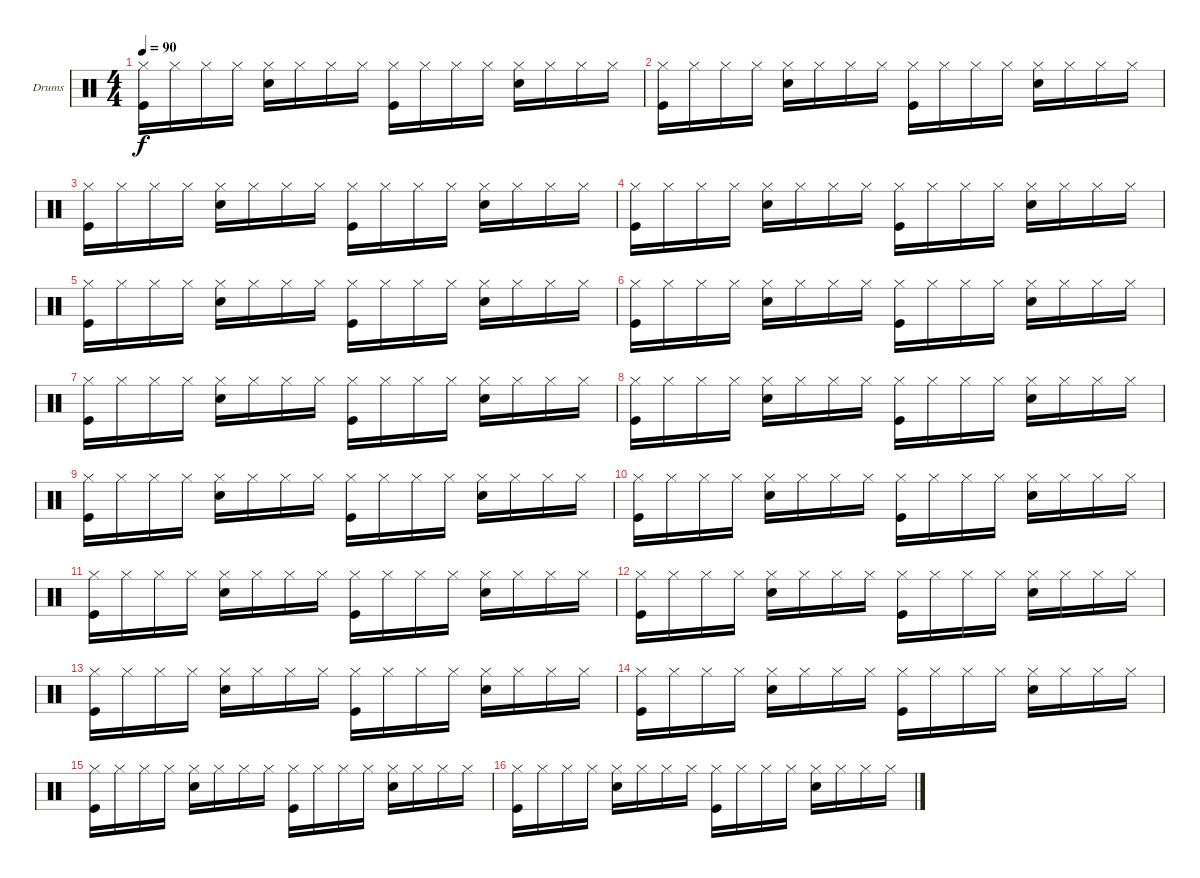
\defaultSystemsLayout 4
\bracketExtendMode groupsimilarinstruments
\firstSystemTrackNameOrientation horizontal
\otherSystemsTrackNameOrientation horizontal
\track ("Drumkit" "Drums") {instrument percussion}
\staff {score}
\articulation defaults
\ts (4 4)
\tempo 90
\clef neutral
\ks c
("Kick (hit)" "Hi-Hat (closed)").16{dy f} "Hi-Hat (closed)".16 "Hi-Hat (closed)".16 "Hi-Hat (closed)".16 ("Hi-Hat (closed)" "Snare (hit) 2").16 "Hi-Hat (closed)".16 "Hi-Hat (closed)".16 "Hi-Hat (closed)".16 ("Hi-Hat (closed)" "Kick (hit)").16 "Hi-Hat (closed)".16 "Hi-Hat (closed)".16 "Hi-Hat (closed)".16 ("Snare (hit) 2" "Hi-Hat (closed)").16 "Hi-Hat (closed)".16 "Hi-Hat (closed)".16 "Hi-Hat (closed)".16 |
("Kick (hit)" "Hi-Hat (closed)").16 "Hi-Hat (closed)".16 "Hi-Hat (closed)".16 "Hi-Hat (closed)".16 ("Hi-Hat (closed)" "Snare (hit) 2").16 "Hi-Hat (closed)".16 "Hi-Hat (closed)".16 "Hi-Hat (closed)".16 ("Kick (hit)" "Hi-Hat (closed)").16 "Hi-Hat (closed)".16 "Hi-Hat (closed)".16 "Hi-Hat (closed)".16 ("Snare (hit) 2" "Hi-Hat (closed)").16 "Hi-Hat (closed)".16 "Hi-Hat (closed)".16 "Hi-Hat (closed)".16 |
("Hi-Hat (closed)" "Kick (hit)").16 "Hi-Hat (closed)".16 "Hi-Hat (closed)".16 "Hi-Hat (closed)".16 ("Snare (hit) 2" "Hi-Hat (closed)").16 "Hi-Hat (closed)".16 "Hi-Hat (closed)".16 "Hi-Hat (closed)".16 ("Kick (hit)" "Hi-Hat (closed)").16 "Hi-Hat (closed)".16 "Hi-Hat (closed)".16 "Hi-Hat (closed)".16 ("Hi-Hat (closed)" "Snare (hit) 2").16 "Hi-Hat (closed)".16 "Hi-Hat (closed)".16 "Hi-Hat (closed)".16 |
("Kick (hit)" "Hi-Hat (closed)").16 "Hi-Hat (closed)".16 "Hi-Hat (closed)".16 "Hi-Hat (closed)".16 ("Snare (hit) 2" "Hi-Hat (closed)").16 "Hi-Hat (closed)".16 "Hi-Hat (closed)".16 "Hi-Hat (closed)".16 ("Hi-Hat (closed)" "Kick (hit)").16 "Hi-Hat (closed)".16 "Hi-Hat (closed)".16 "Hi-Hat (closed)".16 ("Snare (hit) 2" "Hi-Hat (closed)").16 "Hi-Hat (closed)".16 "Hi-Hat (closed)".16 "Hi-Hat (closed)".16 |
("Kick (hit)" "Hi-Hat (closed)").16 "Hi-Hat (closed)".16 "Hi-Hat (closed)".16 "Hi-Hat (closed)".16 ("Hi-Hat (closed)" "Snare (hit) 2").16 "Hi-Hat (closed)".16 "Hi-Hat (closed)".16 "Hi-Hat (closed)".16 ("Kick (hit)" "Hi-Hat (closed)").16 "Hi-Hat (closed)".16 "Hi-Hat (closed)".16 "Hi-Hat (closed)".16 ("Snare (hit) 2" "Hi-Hat (closed)").16 "Hi-Hat (closed)".16 "Hi-Hat (closed)".16 "Hi-Hat (closed)".16 |
("Kick (hit)" "Hi-Hat (closed)").16 "Hi-Hat (closed)".16 "Hi-Hat (closed)".16 "Hi-Hat (closed)".16 ("Snare (hit) 2" "Hi-Hat (closed)").16 "Hi-Hat (closed)".16 "Hi-Hat (closed)".16 "Hi-Hat (closed)".16 ("Hi-Hat (closed)" "Kick (hit)").16 "Hi-Hat (closed)".16 "Hi-Hat (closed)".16 "Hi-Hat (closed)".16 ("Snare (hit) 2" "Hi-Hat (closed)").16 "Hi-Hat (closed)".16 "Hi-Hat (closed)".16 "Hi-Hat (closed)".16 |
("Kick (hit)" "Hi-Hat (closed)").16 "Hi-Hat (closed)".16 "Hi-Hat (closed)".16 "Hi-Hat (closed)".16 ("Hi-Hat (closed)" "Snare (hit) 2").16 "Hi-Hat (closed)".16 "Hi-Hat (closed)".16 "Hi-Hat (closed)".16 ("Kick (hit)" "Hi-Hat (closed)").16 "Hi-Hat (closed)".16 "Hi-Hat (closed)".16 "Hi-Hat (closed)".16 ("Snare (hit) 2" "Hi-Hat (closed)").16 "Hi-Hat (closed)".16 "Hi-Hat (closed)".16 "Hi-Hat (closed)".16 |
("Hi-Hat (closed)" "Kick (hit)").16 "Hi-Hat (closed)".16 "Hi-Hat (closed)".16 "Hi-Hat (closed)".16 ("Snare (hit) 2" "Hi-Hat (closed)").16 "Hi-Hat (closed)".16 "Hi-Hat (closed)".16 "Hi-Hat (closed)".16 ("Kick (hit)" "Hi-Hat (closed)").16 "Hi-Hat (closed)".16 "Hi-Hat (closed)".16 "Hi-Hat (closed)".16 ("Hi-Hat (closed)" "Snare (hit) 2").16 "Hi-Hat (closed)".16 "Hi-Hat (closed)".16 "Hi-Hat (closed)".16 |
("Kick (hit)" "Hi-Hat (closed)").16 "Hi-Hat (closed)".16 "Hi-Hat (closed)".16 "Hi-Hat (closed)".16 ("Snare (hit) 2" "Hi-Hat (closed)").16 "Hi-Hat (closed)".16 "Hi-Hat (closed)".16 "Hi-Hat (closed)".16 ("Hi-Hat (closed)" "Kick (hit)").16 "Hi-Hat (closed)".16 "Hi-Hat (closed)".16 "Hi-Hat (closed)".16 ("Snare (hit) 2" "Hi-Hat (closed)").16 "Hi-Hat (closed)".16 "Hi-Hat (closed)".16 "Hi-Hat (closed)".16 |
("Kick (hit)" "Hi-Hat (closed)").16 "Hi-Hat (closed)".16 "Hi-Hat (closed)".16 "Hi-Hat (closed)".16 ("Hi-Hat (closed)" "Snare (hit) 2").16 "Hi-Hat (closed)".16 "Hi-Hat (closed)".16 "Hi-Hat (closed)".16 ("Kick (hit)" "Hi-Hat (closed)").16 "Hi-Hat (closed)".16 "Hi-Hat (closed)".16 "Hi-Hat (closed)".16 ("Snare (hit) 2" "Hi-Hat (closed)").16 "Hi-Hat (closed)".16 "Hi-Hat (closed)".16 "Hi-Hat (closed)".16 |
("Hi-Hat (closed)" "Kick (hit)").16 "Hi-Hat (closed)".16 "Hi-Hat (closed)".16 "Hi-Hat (closed)".16 ("Snare (hit) 2" "Hi-Hat (closed)").16 "Hi-Hat (closed)".16 "Hi-Hat (closed)".16 "Hi-Hat (closed)".16 ("Kick (hit)" "Hi-Hat (closed)").16 "Hi-Hat (closed)".16 "Hi-Hat (closed)".16 "Hi-Hat (closed)".16 ("Hi-Hat (closed)" "Snare (hit) 2").16 "Hi-Hat (closed)".16 "Hi-Hat (closed)".16 "Hi-Hat (closed)".16 |
("Kick (hit)" "Hi-Hat (closed)").16 "Hi-Hat (closed)".16 "Hi-Hat (closed)".16 "Hi-Hat (closed)".16 ("Snare (hit) 2" "Hi-Hat (closed)").16 "Hi-Hat (closed)".16 "Hi-Hat (closed)".16 "Hi-Hat (closed)".16 ("Hi-Hat (closed)" "Kick (hit)").16 "Hi-Hat (closed)".16 "Hi-Hat (closed)".16 "Hi-Hat (closed)".16 ("Snare (hit) 2" "Hi-Hat (closed)").16 "Hi-Hat (closed)".16 "Hi-Hat (closed)".16 "Hi-Hat (closed)".16 |
("Kick (hit)" "Hi-Hat (closed)").16 "Hi-Hat (closed)".16 "Hi-Hat (closed)".16 "Hi-Hat (closed)".16 ("Hi-Hat (closed)" "Snare (hit) 2").16 "Hi-Hat (closed)".16 "Hi-Hat (closed)".16 "Hi-Hat (closed)".16 ("Kick (hit)" "Hi-Hat (closed)").16 "Hi-Hat (closed)".16 "Hi-Hat (closed)".16 "Hi-Hat (closed)".16 ("Snare (hit) 2" "Hi-Hat (closed)").16 "Hi-Hat (closed)".16 "Hi-Hat (closed)".16 "Hi-Hat (closed)".16 |
("Hi-Hat (closed)" "Kick (hit)").16 "Hi-Hat (closed)".16 "Hi-Hat (closed)".16 "Hi-Hat (closed)".16 ("Snare (hit) 2" "Hi-Hat (closed)").16 "Hi-Hat (closed)".16 "Hi-Hat (closed)".16 "Hi-Hat (closed)".16 ("Kick (hit)" "Hi-Hat (closed)").16 "Hi-Hat (closed)".16 "Hi-Hat (closed)".16 "Hi-Hat (closed)".16 ("Hi-Hat (closed)" "Snare (hit) 2").16 "Hi-Hat (closed)".16 "Hi-Hat (closed)".16 "Hi-Hat (closed)".16 |
("Kick (hit)" "Hi-Hat (closed)").16 "Hi-Hat (closed)".16 "Hi-Hat (closed)".16 "Hi-Hat (closed)".16 ("Snare (hit) 2" "Hi-Hat (closed)").16 "Hi-Hat (closed)".16 "Hi-Hat (closed)".16 "Hi-Hat (closed)".16 ("Hi-Hat (closed)" "Kick (hit)").16 "Hi-Hat (closed)".16 "Hi-Hat (closed)".16 "Hi-Hat (closed)".16 ("Snare (hit) 2" "Hi-Hat (closed)").16 "Hi-Hat (closed)".16 "Hi-Hat (closed)".16 "Hi-Hat (closed)".16 |
("Kick (hit)" "Hi-Hat (closed)").16 "Hi-Hat (closed)".16 "Hi-Hat (closed)".16 "Hi-Hat (closed)".16 ("Hi-Hat (closed)" "Snare (hit) 2").16 "Hi-Hat (closed)".16 "Hi-Hat (closed)".16 "Hi-Hat (closed)".16 ("Kick (hit)" "Hi-Hat (closed)").16 "Hi-Hat (closed)".16 "Hi-Hat (closed)".16 "Hi-Hat (closed)".16 ("Snare (hit) 2" "Hi-Hat (closed)").16 "Hi-Hat (closed)".16 "Hi-Hat (closed)".16 "Hi-Hat (closed)".16
